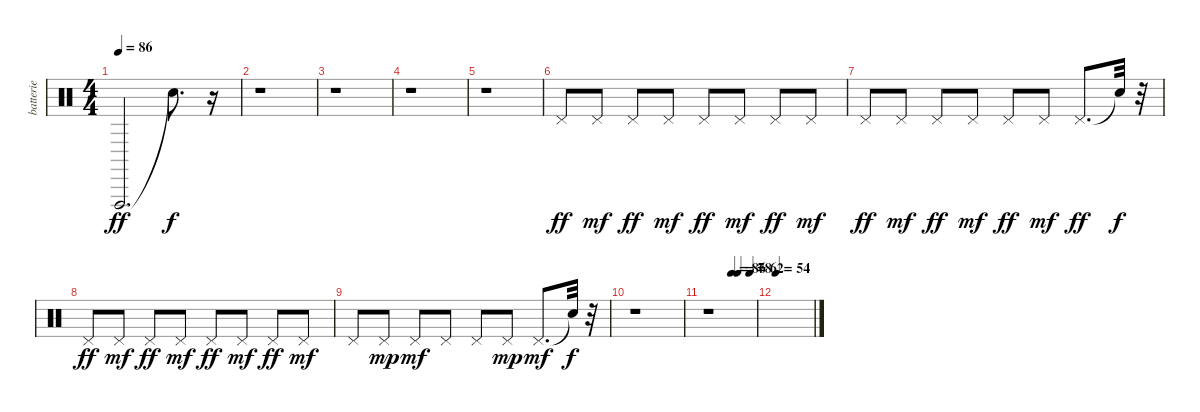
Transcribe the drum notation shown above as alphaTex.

\track ("batterie" "batterie") {instrument percussion}
\staff {score}
\articulation defaults
\ts (4 4)
\tempo 86
\clef neutral
\ks c "Vibraslap (hit)".2{d dy ff} "Snare (hit)"{t}.8{d dy f}
r.16 |
r.1 |
r.1 |
r.1 |
r.1 |
"Pedal Hi-Hat (hit)".8{dy ff} "Pedal Hi-Hat (hit)".8{dy mf} "Pedal Hi-Hat (hit)".8{dy ff} "Pedal Hi-Hat (hit)".8{dy mf} "Pedal Hi-Hat (hit)".8{dy ff} "Pedal Hi-Hat (hit)".8{dy mf} "Pedal Hi-Hat (hit)".8{dy ff} "Pedal Hi-Hat (hit)".8{dy mf} |
"Pedal Hi-Hat (hit)".8{dy ff} "Pedal Hi-Hat (hit)".8{dy mf} "Pedal Hi-Hat (hit)".8{dy ff} "Pedal Hi-Hat (hit)".8{dy mf} "Pedal Hi-Hat (hit)".8{dy ff} "Pedal Hi-Hat (hit)".8{dy mf} "Pedal Hi-Hat (hit)".8{d dy ff} "Snare (hit)"{t}.32{dy f} r.32 |
"Pedal Hi-Hat (hit)".8{dy ff} "Pedal Hi-Hat (hit)".8{dy mf} "Pedal Hi-Hat (hit)".8{dy ff} "Pedal Hi-Hat (hit)".8{dy mf} "Pedal Hi-Hat (hit)".8{dy ff} "Pedal Hi-Hat (hit)".8{dy mf} "Pedal Hi-Hat (hit)".8{dy ff} "Pedal Hi-Hat (hit)".8{dy mf} |
"Pedal Hi-Hat (hit)".8 "Pedal Hi-Hat (hit)".8{dy mp} "Pedal Hi-Hat (hit)".8{dy mf} "Pedal Hi-Hat (hit)".8 "Pedal Hi-Hat (hit)".8 "Pedal Hi-Hat (hit)".8{dy mp} "Pedal Hi-Hat (hit)".8{d dy mf} "Snare (hit)"{t}.32{dy f} r.32 |
r.1 |
\tempo (86 0.5)
\tempo (78 0.625)
\tempo (62 0.875)
r.1 |
\tempo 54
